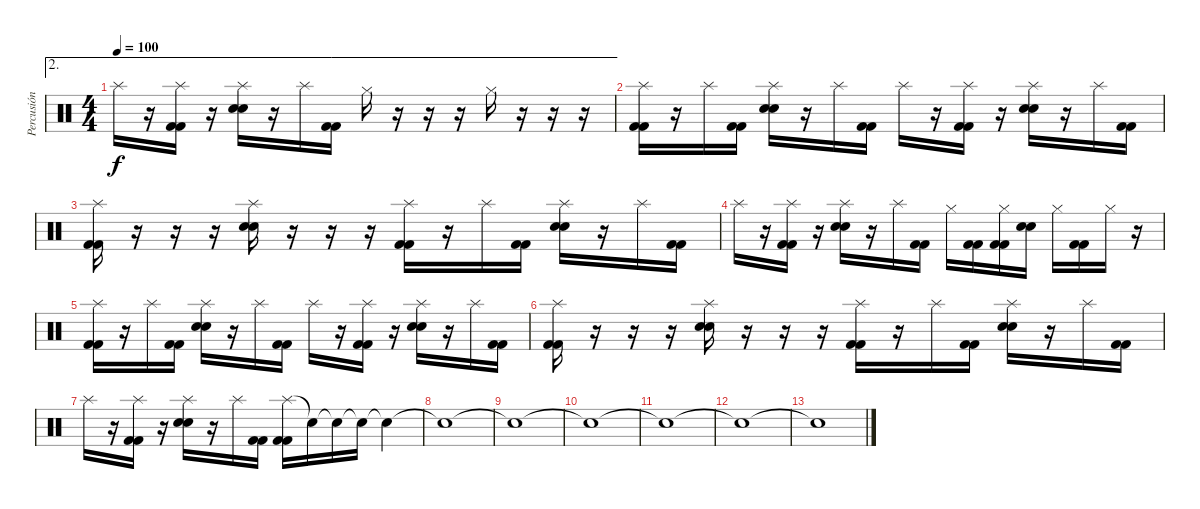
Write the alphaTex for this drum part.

\track ("Percusión" "Percusión") {instrument percussion}
\staff {score}
\articulation defaults
\ae 2
\ts (4 4)
\tempo 100
\clef neutral
\ks c "Splash (hit)".16{dy f}
r.16 ("Splash (hit)" "Kick (hit) 2" "Kick (hit) 2").16 r.16 ("Splash (hit)" "Electric Snare (hit)" "Electric Snare (hit)").16 r.16 "Splash (hit)".16 ("Kick (hit) 2" "Kick (hit) 2").16 "Hi-Hat (closed)".16 r.16 r.16 r.16 "Hi-Hat (closed)".16 r.16 r.16 r.16 |
("Splash (hit)" "Kick (hit) 2" "Kick (hit) 2").16 r.16 "Splash (hit)".16 ("Kick (hit) 2" "Kick (hit) 2").16 ("Splash (hit)" "Electric Snare (hit)" "Electric Snare (hit)").16 r.16 "Splash (hit)".16 ("Kick (hit) 2" "Kick (hit) 2").16 "Splash (hit)".16 r.16 ("Splash (hit)" "Kick (hit) 2" "Kick (hit) 2").16 r.16 ("Splash (hit)" "Electric Snare (hit)" "Electric Snare (hit)").16 r.16 "Splash (hit)".16 ("Kick (hit) 2" "Kick (hit) 2").16 |
("Splash (hit)" "Kick (hit) 2" "Kick (hit) 2").16 r.16 r.16 r.16 ("Splash (hit)" "Electric Snare (hit)" "Electric Snare (hit)").16 r.16 r.16 r.16 ("Splash (hit)" "Kick (hit) 2" "Kick (hit) 2").16 r.16 "Splash (hit)".16 ("Kick (hit) 2" "Kick (hit) 2").16 ("Splash (hit)" "Electric Snare (hit)" "Electric Snare (hit)").16 r.16 "Splash (hit)".16 ("Kick (hit) 2" "Kick (hit) 2").16 |
"Splash (hit)".16 r.16 ("Splash (hit)" "Kick (hit) 2" "Kick (hit) 2").16 r.16 ("Splash (hit)" "Electric Snare (hit)" "Electric Snare (hit)").16 r.16 "Splash (hit)".16 ("Kick (hit) 2" "Kick (hit) 2").16 "Hi-Hat (closed)".16 ("Kick (hit) 2" "Kick (hit) 2").16 ("Hi-Hat (closed)" "Kick (hit) 2" "Kick (hit) 2").16 ("Electric Snare (hit)" "Electric Snare (hit)").16 "Hi-Hat (closed)".16 ("Kick (hit) 2" "Kick (hit) 2").16 "Hi-Hat (closed)".16 r.16 |
("Splash (hit)" "Kick (hit) 2" "Kick (hit) 2").16 r.16 "Splash (hit)".16 ("Kick (hit) 2" "Kick (hit) 2").16 ("Splash (hit)" "Electric Snare (hit)" "Electric Snare (hit)").16 r.16 "Splash (hit)".16 ("Kick (hit) 2" "Kick (hit) 2").16 "Splash (hit)".16 r.16 ("Splash (hit)" "Kick (hit) 2" "Kick (hit) 2").16 r.16 ("Splash (hit)" "Electric Snare (hit)" "Electric Snare (hit)").16 r.16 "Splash (hit)".16 ("Kick (hit) 2" "Kick (hit) 2").16 |
("Splash (hit)" "Kick (hit) 2" "Kick (hit) 2").16 r.16 r.16 r.16 ("Splash (hit)" "Electric Snare (hit)" "Electric Snare (hit)").16 r.16 r.16 r.16 ("Splash (hit)" "Kick (hit) 2" "Kick (hit) 2").16 r.16 "Splash (hit)".16 ("Kick (hit) 2" "Kick (hit) 2").16 ("Splash (hit)" "Electric Snare (hit)" "Electric Snare (hit)").16 r.16 "Splash (hit)".16 ("Kick (hit) 2" "Kick (hit) 2").16 |
"Splash (hit)".16 r.16 ("Splash (hit)" "Kick (hit) 2" "Kick (hit) 2").16 r.16 ("Splash (hit)" "Electric Snare (hit)" "Electric Snare (hit)").16 r.16 "Splash (hit)".16 ("Kick (hit) 2" "Kick (hit) 2").16 ("Splash (hit)" "Kick (hit) 2" "Kick (hit) 2").16 "Snare (hit)"{t}.16 "Snare (hit)"{t}.16 "Snare (hit)"{t}.16 "Snare (hit)"{t}.4 |
"Snare (hit)"{t}.1 |
"Snare (hit)"{t}.1 |
"Snare (hit)"{t}.1 |
"Snare (hit)"{t}.1 |
"Snare (hit)"{t}.1 |
"Snare (hit)"{t}.1
